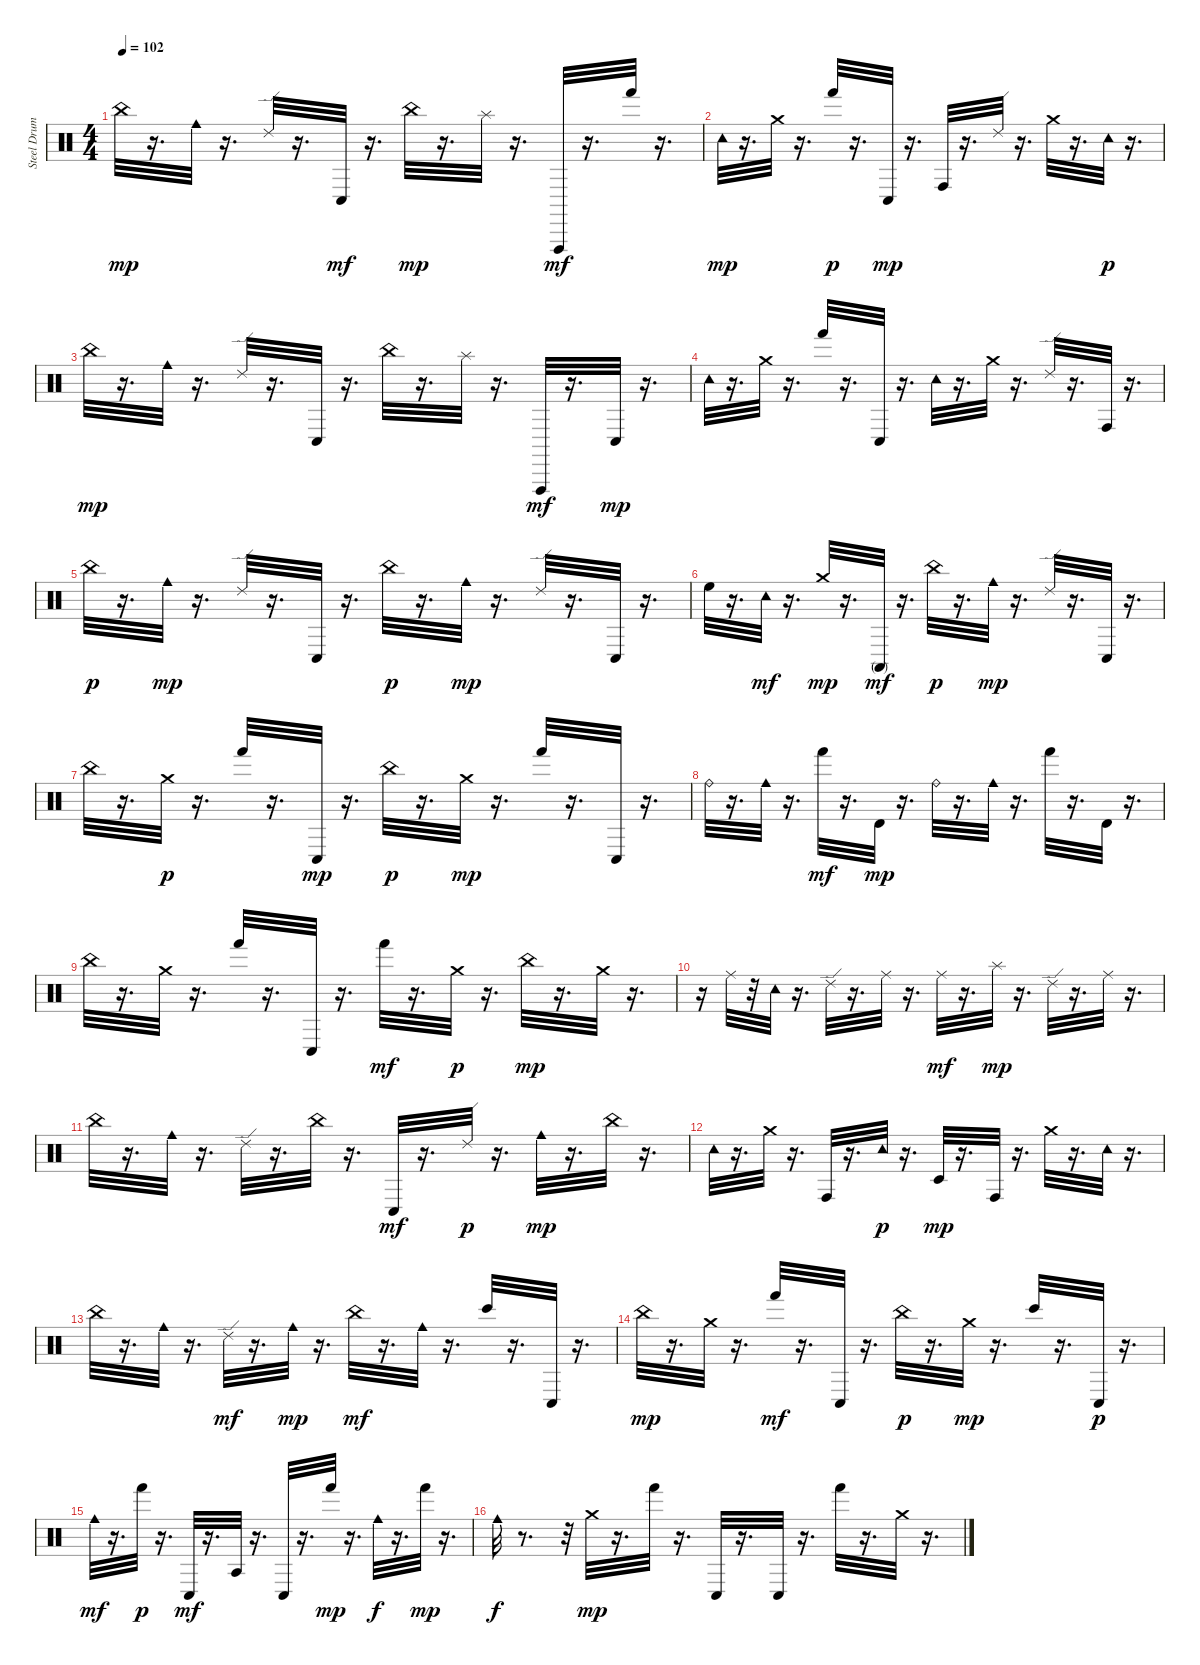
\track ("Steel Drums" "Steel Drum") {instrument percussion}
\staff {score}
\articulation defaults
\ts (4 4)
\tempo 102
\clef neutral
\ks c "China (hit)".32{dy mp}
r.16{d} "Cowbell medium (hit)".32 r.16{d} "Ride (edge) 2".32 r.16{d} "Conga low (hit)".32{dy mf} r.16{d} "China (hit)".32{dy mp} r.16{d} "Splash (hit)".32 r.16{d} "Vibraslap (hit)".32{dy mf} r.16{d} "Hand (hit)".32 r.16{d} |
"Tambourine (hit)".32{dy mp} r.16{d} "Crash medium (hit)".32 r.16{d} "Hand (hit)".32{dy p} r.16{d} "Conga low (hit)".32{dy mp} r.16{d} "Conga high (hit)".32 r.16{d} "Ride (edge) 2".32 r.16{d} "Crash medium (hit)".32 r.16{d} "Tambourine (hit)".32{dy p} r.16{d} |
"China (hit)".32{dy mp} r.16{d} "Cowbell medium (hit)".32 r.16{d} "Ride (edge) 2".32 r.16{d} "Conga low (hit)".32 r.16{d} "China (hit)".32 r.16{d} "Splash (hit)".32 r.16{d} "Vibraslap (hit)".32{dy mf} r.16{d} "Conga low (hit)".32{dy mp} r.16{d} |
"Tambourine (hit)".32 r.16{d} "Crash medium (hit)".32 r.16{d} "Hand (hit)".32 r.16{d} "Conga low (hit)".32 r.16{d} "Tambourine (hit)".32 r.16{d} "Crash medium (hit)".32 r.16{d} "Ride (edge) 2".32 r.16{d} "Conga high (hit)".32 r.16{d} |
"China (hit)".32{dy p} r.16{d} "Cowbell medium (hit)".32{dy mp} r.16{d} "Ride (edge) 2".32 r.16{d} "Conga low (hit)".32 r.16{d} "China (hit)".32{dy p} r.16{d} "Cowbell medium (hit)".32{dy mp} r.16{d} "Ride (edge) 2".32 r.16{d} "Conga low (hit)".32 r.16{d} |
"High Floor Tom (hit)".32 r.16{d} "Tambourine (hit)".32{dy mf} r.16{d} "Crash medium (hit)".32{dy mp} r.16{d} "Conga high (mute)".32{dy mf} r.16{d} "China (hit)".32{dy p} r.16{d} "Cowbell medium (hit)".32{dy mp} r.16{d} "Ride (edge) 2".32 r.16{d} "Conga low (hit)".32 r.16{d} |
"China (hit)".32 r.16{d} "Crash medium (hit)".32{dy p} r.16{d} "Hand (hit)".32 r.16{d} "Conga low (hit)".32{dy mp} r.16{d} "China (hit)".32{dy p} r.16{d} "Crash medium (hit)".32{dy mp} r.16{d} "Hand (hit)".32 r.16{d} "Conga low (hit)".32 r.16{d} |
"Ride (bell)".32 r.16{d} "Cowbell medium (hit)".32 r.16{d} "Hand (hit)".32{dy mf} r.16{d} "Timbale high (hit)".32{dy mp} r.16{d} "Ride (bell)".32 r.16{d} "Cowbell medium (hit)".32 r.16{d} "Hand (hit)".32 r.16{d} "Timbale high (hit)".32 r.16{d} |
"China (hit)".32 r.16{d} "Crash medium (hit)".32 r.16{d} "Hand (hit)".32 r.16{d} "Conga low (hit)".32 r.16{d} "Hand (hit)".32{dy mf} r.16{d} "Crash medium (hit)".32{dy p} r.16{d} "China (hit)".32{dy mp} r.16{d} "Crash medium (hit)".32 r.16{d} |
r.16 "Ride (middle)".32 r.32 "Tambourine (hit)".32 r.16{d} "Ride (edge) 2".32 r.16{d} "Ride (middle)".32 r.16{d} "Ride (middle)".32{dy mf} r.16{d} "Splash (hit)".32{dy mp} r.16{d} "Ride (edge) 2".32 r.16{d} "Ride (middle)".32 r.16{d} |
"China (hit)".32 r.16{d} "Cowbell medium (hit)".32 r.16{d} "Ride (edge) 2".32 r.16{d} "China (hit)".32 r.16{d} "Conga low (hit)".32{dy mf} r.16{d} "Ride (edge) 2".32{dy p} r.16{d} "Cowbell medium (hit)".32{dy mp} r.16{d} "China (hit)".32 r.16{d} |
"Tambourine (hit)".32 r.16{d} "Crash medium (hit)".32 r.16{d} "Conga high (hit)".32 r.16{d} "Tambourine (hit)".32{dy p} r.16{d} "Timbale low (hit)".32{dy mp} r.16{d} "Conga high (hit)".32 r.16{d} "Crash medium (hit)".32 r.16{d} "Tambourine (hit)".32 r.16{d} |
"China (hit)".32 r.16{d} "Cowbell medium (hit)".32 r.16{d} "Ride (edge) 2".32{dy mf} r.16{d} "Cowbell medium (hit)".32{dy mp} r.16{d} "China (hit)".32{dy mf} r.16{d} "Cowbell medium (hit)".32 r.16{d} "Bongo High (hit)".32 r.16{d} "Conga low (hit)".32 r.16{d} |
"China (hit)".32{dy mp} r.16{d} "Crash medium (hit)".32 r.16{d} "Hand (hit)".32{dy mf} r.16{d} "Conga low (hit)".32 r.16{d} "China (hit)".32{dy p} r.16{d} "Crash medium (hit)".32{dy mp} r.16{d} "Bongo High (hit)".32 r.16{d} "Conga low (hit)".32{dy p} r.16{d} |
"Cowbell medium (hit)".32{dy mf} r.16{d} "Hand (hit)".32{dy p} r.16{d} "Conga low (hit)".32{dy mf} r.16{d} "Agogo tow (hit)".32 r.16{d} "Conga low (hit)".32 r.16{d} "Hand (hit)".32{dy mp} r.16{d} "Cowbell medium (hit)".32{dy f} r.16{d} "Hand (hit)".32{dy mp} r.16{d} |
"Cowbell medium (hit)".32{dy f} r.8{d} r.32 "Crash medium (hit)".32{dy mp} r.16{d} "Hand (hit)".32 r.16{d} "Conga low (hit)".32 r.16{d} "Conga low (hit)".32 r.16{d} "Hand (hit)".32 r.16{d} "Crash medium (hit)".32 r.16{d}
